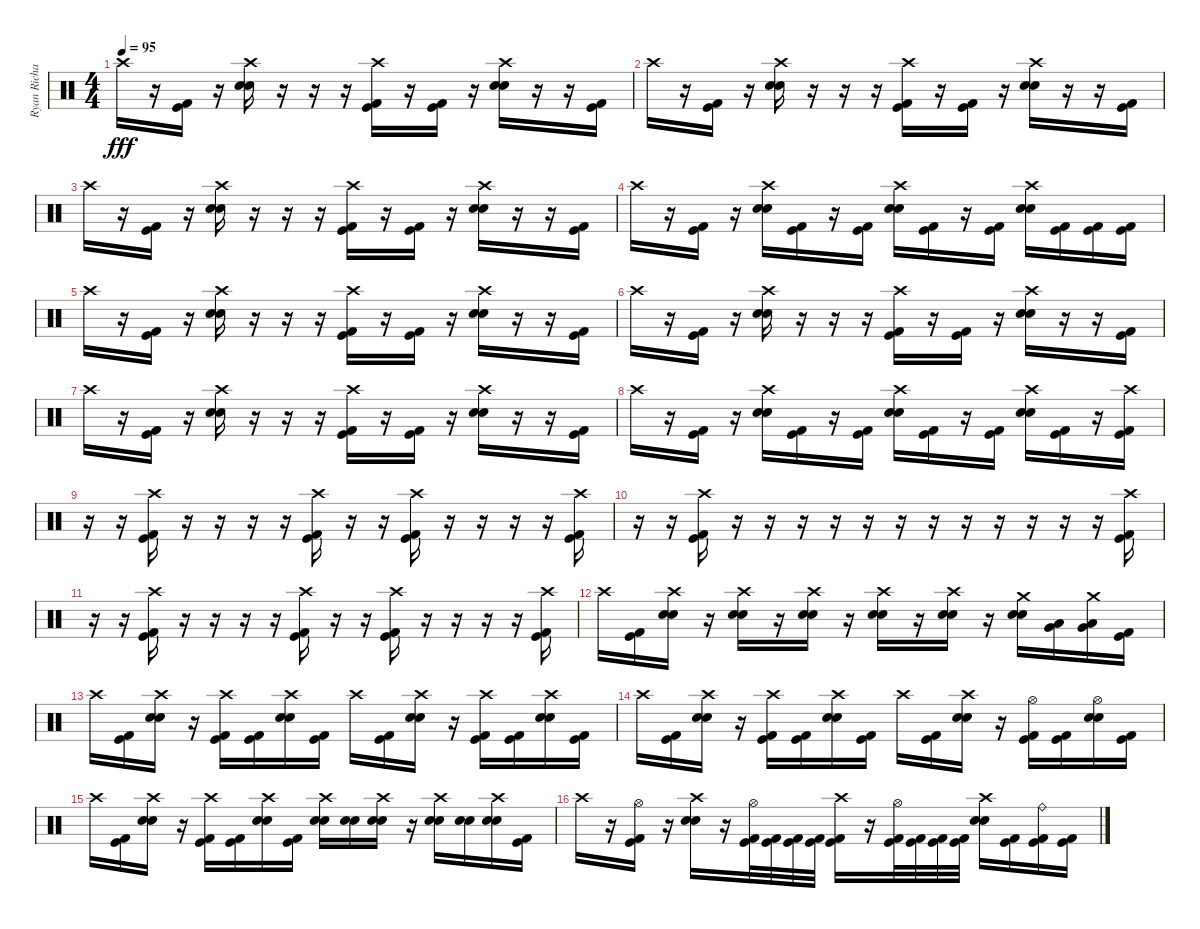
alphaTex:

\track ("Ryan Richards" "Ryan Richa") {instrument percussion}
\staff {score}
\articulation defaults
\ts (4 4)
\tempo 95
\clef neutral
\ks c "Crash high (hit)".16{dy fff}
r.16 ("Kick (hit)" "Kick (hit) 2").16 r.16 ("Snare (hit) 2" "Crash high (hit)" "Electric Snare (hit)").16 r.16 r.16 r.16 ("Kick (hit)" "Crash high (hit)" "Kick (hit) 2").16 r.16 ("Kick (hit)" "Kick (hit) 2").16 r.16 ("Snare (hit) 2" "Crash high (hit)" "Electric Snare (hit)").16 r.16 r.16 ("Kick (hit)" "Kick (hit) 2").16 |
"Crash high (hit)".16 r.16 ("Kick (hit)" "Kick (hit) 2").16 r.16 ("Snare (hit) 2" "Crash high (hit)" "Electric Snare (hit)").16 r.16 r.16 r.16 ("Kick (hit)" "Crash high (hit)" "Kick (hit) 2").16 r.16 ("Kick (hit)" "Kick (hit) 2").16 r.16 ("Snare (hit) 2" "Crash high (hit)" "Electric Snare (hit)").16 r.16 r.16 ("Kick (hit)" "Kick (hit) 2").16 |
"Crash high (hit)".16 r.16 ("Kick (hit)" "Kick (hit) 2").16 r.16 ("Snare (hit) 2" "Crash high (hit)" "Electric Snare (hit)").16 r.16 r.16 r.16 ("Kick (hit)" "Crash high (hit)" "Kick (hit) 2").16 r.16 ("Kick (hit)" "Kick (hit) 2").16 r.16 ("Snare (hit) 2" "Crash high (hit)" "Electric Snare (hit)").16 r.16 r.16 ("Kick (hit)" "Kick (hit) 2").16 |
"Crash high (hit)".16 r.16 ("Kick (hit)" "Kick (hit) 2").16 r.16 ("Snare (hit) 2" "Crash high (hit)" "Electric Snare (hit)").16 ("Kick (hit)" "Kick (hit) 2").16 r.16 ("Kick (hit)" "Kick (hit) 2").16 ("Snare (hit) 2" "Crash high (hit)" "Electric Snare (hit)").16 ("Kick (hit)" "Kick (hit) 2").16 r.16 ("Kick (hit)" "Kick (hit) 2").16 ("Snare (hit) 2" "Crash high (hit)" "Electric Snare (hit)").16 ("Kick (hit)" "Kick (hit) 2").16 ("Kick (hit)" "Kick (hit) 2").16 ("Kick (hit)" "Kick (hit) 2").16 |
"Crash high (hit)".16 r.16 ("Kick (hit)" "Kick (hit) 2").16 r.16 ("Snare (hit) 2" "Crash high (hit)" "Electric Snare (hit)").16 r.16 r.16 r.16 ("Kick (hit)" "Crash high (hit)" "Kick (hit) 2").16 r.16 ("Kick (hit)" "Kick (hit) 2").16 r.16 ("Snare (hit) 2" "Crash high (hit)" "Electric Snare (hit)").16 r.16 r.16 ("Kick (hit)" "Kick (hit) 2").16 |
"Crash high (hit)".16 r.16 ("Kick (hit)" "Kick (hit) 2").16 r.16 ("Snare (hit) 2" "Crash high (hit)" "Electric Snare (hit)").16 r.16 r.16 r.16 ("Kick (hit)" "Crash high (hit)" "Kick (hit) 2").16 r.16 ("Kick (hit)" "Kick (hit) 2").16 r.16 ("Snare (hit) 2" "Crash high (hit)" "Electric Snare (hit)").16 r.16 r.16 ("Kick (hit)" "Kick (hit) 2").16 |
"Crash high (hit)".16 r.16 ("Kick (hit)" "Kick (hit) 2").16 r.16 ("Snare (hit) 2" "Crash high (hit)" "Electric Snare (hit)").16 r.16 r.16 r.16 ("Kick (hit)" "Crash high (hit)" "Kick (hit) 2").16 r.16 ("Kick (hit)" "Kick (hit) 2").16 r.16 ("Snare (hit) 2" "Crash high (hit)" "Electric Snare (hit)").16 r.16 r.16 ("Kick (hit)" "Kick (hit) 2").16 |
"Crash high (hit)".16 r.16 ("Kick (hit)" "Kick (hit) 2").16 r.16 ("Snare (hit) 2" "Crash high (hit)" "Electric Snare (hit)").16 ("Kick (hit)" "Kick (hit) 2").16 r.16 ("Kick (hit)" "Kick (hit) 2").16 ("Snare (hit) 2" "Crash high (hit)" "Electric Snare (hit)").16 ("Kick (hit)" "Kick (hit) 2").16 r.16 ("Kick (hit)" "Kick (hit) 2").16 ("Snare (hit) 2" "Crash high (hit)" "Electric Snare (hit)").16 ("Kick (hit)" "Kick (hit) 2").16 r.16 ("Kick (hit)" "Crash high (hit)" "Kick (hit) 2").16 |
r.16 r.16 ("Kick (hit)" "Crash high (hit)" "Kick (hit) 2").16 r.16 r.16 r.16 r.16 ("Kick (hit)" "Crash high (hit)" "Kick (hit) 2").16 r.16 r.16 ("Kick (hit)" "Crash high (hit)" "Kick (hit) 2").16 r.16 r.16 r.16 r.16 ("Kick (hit)" "Crash high (hit)" "Kick (hit) 2").16 |
r.16 r.16 ("Kick (hit)" "Crash high (hit)" "Kick (hit) 2").16 r.16 r.16 r.16 r.16 r.16 r.16 r.16 r.16 r.16 r.16 r.16 r.16 ("Kick (hit)" "Crash high (hit)" "Kick (hit) 2").16 |
r.16 r.16 ("Kick (hit)" "Crash high (hit)" "Kick (hit) 2").16 r.16 r.16 r.16 r.16 ("Kick (hit)" "Crash high (hit)" "Kick (hit) 2").16 r.16 r.16 ("Kick (hit)" "Crash high (hit)" "Kick (hit) 2").16 r.16 r.16 r.16 r.16 ("Kick (hit)" "Crash high (hit)" "Kick (hit) 2").16 |
"Crash high (hit)".16 ("Kick (hit)" "Kick (hit) 2").16 ("Snare (hit) 2" "Crash high (hit)" "Electric Snare (hit)").16 r.16 ("Snare (hit) 2" "Crash high (hit)" "Electric Snare (hit)").16 r.16 ("Snare (hit) 2" "Crash high (hit)" "Electric Snare (hit)").16 r.16 ("Snare (hit) 2" "Crash high (hit)" "Electric Snare (hit)").16 r.16 ("Snare (hit) 2" "Crash high (hit)" "Electric Snare (hit)").16 r.16 ("Snare (hit) 2" "Crash medium (hit)" "Electric Snare (hit)").16 ("Low Tom (hit)" "Very Low Tom (hit)").16 ("Very Low Tom (hit)" "Crash medium (hit)" "Low Floor Tom (hit)").16 ("Kick (hit)" "Kick (hit) 2").16 |
"Crash high (hit)".16 ("Kick (hit)" "Kick (hit) 2").16 ("Snare (hit) 2" "Crash high (hit)" "Electric Snare (hit)").16 r.16 ("Kick (hit)" "Crash high (hit)" "Kick (hit) 2").16 ("Kick (hit)" "Kick (hit) 2").16 ("Snare (hit) 2" "Crash high (hit)" "Electric Snare (hit)").16 ("Kick (hit)" "Kick (hit) 2").16 "Crash high (hit)".16 ("Kick (hit)" "Kick (hit) 2").16 ("Snare (hit) 2" "Crash high (hit)" "Electric Snare (hit)").16 r.16 ("Kick (hit)" "Crash high (hit)" "Kick (hit) 2").16 ("Kick (hit)" "Kick (hit) 2").16 ("Snare (hit) 2" "Crash high (hit)" "Electric Snare (hit)").16 ("Kick (hit)" "Kick (hit) 2").16 |
"Crash high (hit)".16 ("Kick (hit)" "Kick (hit) 2").16 ("Snare (hit) 2" "Crash high (hit)" "Electric Snare (hit)").16 r.16 ("Kick (hit)" "Crash high (hit)" "Kick (hit) 2").16 ("Kick (hit)" "Kick (hit) 2").16 ("Snare (hit) 2" "Crash high (hit)" "Electric Snare (hit)").16 ("Kick (hit)" "Kick (hit) 2").16 "Crash high (hit)".16 ("Kick (hit)" "Kick (hit) 2").16 ("Snare (hit) 2" "Crash high (hit)" "Electric Snare (hit)").16 r.16 ("Kick (hit)" "Hi-Hat (open)" "Kick (hit) 2").16 ("Kick (hit)" "Kick (hit) 2").16 ("Snare (hit) 2" "Hi-Hat (open)" "Electric Snare (hit)").16 ("Kick (hit)" "Kick (hit) 2").16 |
"Crash high (hit)".16 ("Kick (hit)" "Kick (hit) 2").16 ("Snare (hit) 2" "Crash high (hit)" "Electric Snare (hit)").16 r.16 ("Kick (hit)" "Crash high (hit)" "Kick (hit) 2").16 ("Kick (hit)" "Kick (hit) 2").16 ("Snare (hit) 2" "Crash high (hit)" "Electric Snare (hit)").16 ("Kick (hit)" "Kick (hit) 2").16 ("Snare (hit) 2" "Crash high (hit)" "Electric Snare (hit)").16 ("Snare (hit) 2" "Electric Snare (hit)").16 ("Snare (hit) 2" "Crash high (hit)" "Electric Snare (hit)").16 r.16 ("Snare (hit) 2" "Crash high (hit)" "Electric Snare (hit)").16 ("Snare (hit) 2" "Electric Snare (hit)").16 ("Snare (hit) 2" "Crash high (hit)" "Electric Snare (hit)").16 ("Kick (hit)" "Kick (hit) 2").16 |
"Crash high (hit)".16 r.16 ("Kick (hit)" "Hi-Hat (open)" "Kick (hit) 2").16 r.16 ("Snare (hit) 2" "Crash high (hit)" "Electric Snare (hit)").16 r.16 ("Kick (hit)" "Hi-Hat (open)" "Kick (hit) 2").32 ("Kick (hit)" "Kick (hit) 2").32 ("Kick (hit)" "Kick (hit) 2").32 ("Kick (hit)" "Kick (hit) 2").32 ("Kick (hit)" "Crash high (hit)" "Kick (hit) 2").16 r.16 ("Kick (hit)" "Hi-Hat (open)" "Kick (hit) 2").32 ("Kick (hit)" "Kick (hit) 2").32 ("Kick (hit)" "Kick (hit) 2").32 ("Kick (hit)" "Kick (hit) 2").32 ("Snare (hit) 2" "Crash high (hit)" "Electric Snare (hit)").16 ("Kick (hit)" "Kick (hit) 2").16 ("Kick (hit)" "Ride (bell)" "Kick (hit) 2").16 ("Kick (hit)" "Kick (hit) 2").16
